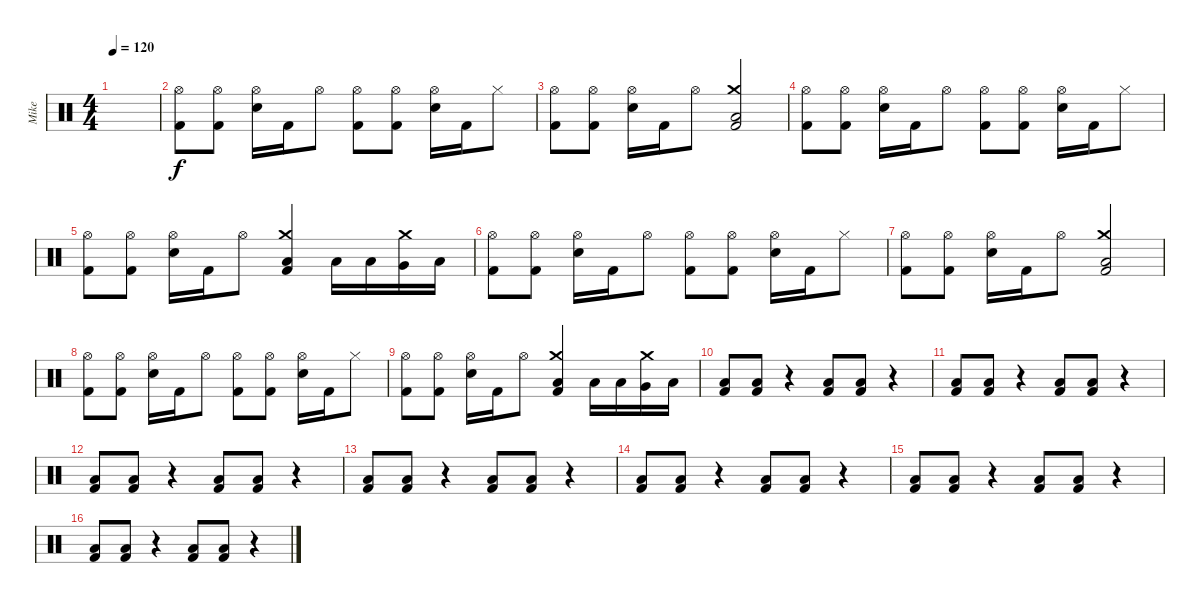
\track ("Mike" "Mike") {instrument percussion}
\staff {score}
\articulation defaults
\ts (4 4)
\tempo 120
\clef neutral
\ks c
|
("Hi-Hat (open)" "Kick (hit) 2").8 ("Hi-Hat (open)" "Kick (hit) 2").8 ("Hi-Hat (open)" "Electric Snare (hit)").16 "Kick (hit) 2".16 "Hi-Hat (open)".8 ("Hi-Hat (open)" "Kick (hit) 2").8 ("Hi-Hat (open)" "Kick (hit) 2").8 ("Hi-Hat (open)" "Electric Snare (hit)").16 "Kick (hit) 2".16 "Hi-Hat (closed)".8 |
("Hi-Hat (open)" "Kick (hit) 2").8 ("Hi-Hat (open)" "Kick (hit) 2").8 ("Hi-Hat (open)" "Electric Snare (hit)").16 "Kick (hit) 2".16 "Hi-Hat (open)".8 ("Crash medium (hit)" "Low Floor Tom (hit)" "Kick (hit) 2").2 |
("Hi-Hat (open)" "Kick (hit) 2").8 ("Hi-Hat (open)" "Kick (hit) 2").8 ("Hi-Hat (open)" "Electric Snare (hit)").16 "Kick (hit) 2".16 "Hi-Hat (open)".8 ("Hi-Hat (open)" "Kick (hit) 2").8 ("Hi-Hat (open)" "Kick (hit) 2").8 ("Hi-Hat (open)" "Electric Snare (hit)").16 "Kick (hit) 2".16 "Hi-Hat (closed)".8 |
("Hi-Hat (open)" "Kick (hit) 2").8 ("Hi-Hat (open)" "Kick (hit) 2").8 ("Hi-Hat (open)" "Electric Snare (hit)").16 "Kick (hit) 2".16 "Hi-Hat (open)".8 ("Crash medium (hit)" "Low Floor Tom (hit)" "Kick (hit) 2").4 "Low Tom (hit)".16 "Low Floor Tom (hit)".16 ("Crash medium (hit)" "Very Low Tom (hit)").16 "Low Floor Tom (hit)".16 |
("Hi-Hat (open)" "Kick (hit) 2").8 ("Hi-Hat (open)" "Kick (hit) 2").8 ("Hi-Hat (open)" "Electric Snare (hit)").16 "Kick (hit) 2".16 "Hi-Hat (open)".8 ("Hi-Hat (open)" "Kick (hit) 2").8 ("Hi-Hat (open)" "Kick (hit) 2").8 ("Hi-Hat (open)" "Electric Snare (hit)").16 "Kick (hit) 2".16 "Hi-Hat (closed)".8 |
("Hi-Hat (open)" "Kick (hit) 2").8 ("Hi-Hat (open)" "Kick (hit) 2").8 ("Hi-Hat (open)" "Electric Snare (hit)").16 "Kick (hit) 2".16 "Hi-Hat (open)".8 ("Crash medium (hit)" "Low Floor Tom (hit)" "Kick (hit) 2").2 |
("Hi-Hat (open)" "Kick (hit) 2").8 ("Hi-Hat (open)" "Kick (hit) 2").8 ("Hi-Hat (open)" "Electric Snare (hit)").16 "Kick (hit) 2".16 "Hi-Hat (open)".8 ("Hi-Hat (open)" "Kick (hit) 2").8 ("Hi-Hat (open)" "Kick (hit) 2").8 ("Hi-Hat (open)" "Electric Snare (hit)").16 "Kick (hit) 2".16 "Hi-Hat (closed)".8 |
("Hi-Hat (open)" "Kick (hit) 2").8 ("Hi-Hat (open)" "Kick (hit) 2").8 ("Hi-Hat (open)" "Electric Snare (hit)").16 "Kick (hit) 2".16 "Hi-Hat (open)".8 ("Crash medium (hit)" "Low Floor Tom (hit)" "Kick (hit) 2").4 "Low Tom (hit)".16 "Low Floor Tom (hit)".16 ("Crash medium (hit)" "Very Low Tom (hit)").16 "Low Floor Tom (hit)".16 |
("Low Floor Tom (hit)" "Kick (hit) 2").8 ("Low Floor Tom (hit)" "Kick (hit) 2").8 r.4 ("Low Floor Tom (hit)" "Kick (hit) 2").8 ("Low Floor Tom (hit)" "Kick (hit) 2").8 r.4 |
("Low Floor Tom (hit)" "Kick (hit) 2").8 ("Low Floor Tom (hit)" "Kick (hit) 2").8 r.4 ("Low Floor Tom (hit)" "Kick (hit) 2").8 ("Low Floor Tom (hit)" "Kick (hit) 2").8 r.4 |
("Low Floor Tom (hit)" "Kick (hit) 2").8 ("Low Floor Tom (hit)" "Kick (hit) 2").8 r.4 ("Low Floor Tom (hit)" "Kick (hit) 2").8 ("Low Floor Tom (hit)" "Kick (hit) 2").8 r.4 |
("Low Floor Tom (hit)" "Kick (hit) 2").8 ("Low Floor Tom (hit)" "Kick (hit) 2").8 r.4 ("Low Floor Tom (hit)" "Kick (hit) 2").8 ("Low Floor Tom (hit)" "Kick (hit) 2").8 r.4 |
("Low Floor Tom (hit)" "Kick (hit) 2").8 ("Low Floor Tom (hit)" "Kick (hit) 2").8 r.4 ("Low Floor Tom (hit)" "Kick (hit) 2").8 ("Low Floor Tom (hit)" "Kick (hit) 2").8 r.4 |
("Low Floor Tom (hit)" "Kick (hit) 2").8 ("Low Floor Tom (hit)" "Kick (hit) 2").8 r.4 ("Low Floor Tom (hit)" "Kick (hit) 2").8 ("Low Floor Tom (hit)" "Kick (hit) 2").8 r.4 |
("Low Floor Tom (hit)" "Kick (hit) 2").8 ("Low Floor Tom (hit)" "Kick (hit) 2").8 r.4 ("Low Floor Tom (hit)" "Kick (hit) 2").8 ("Low Floor Tom (hit)" "Kick (hit) 2").8 r.4
